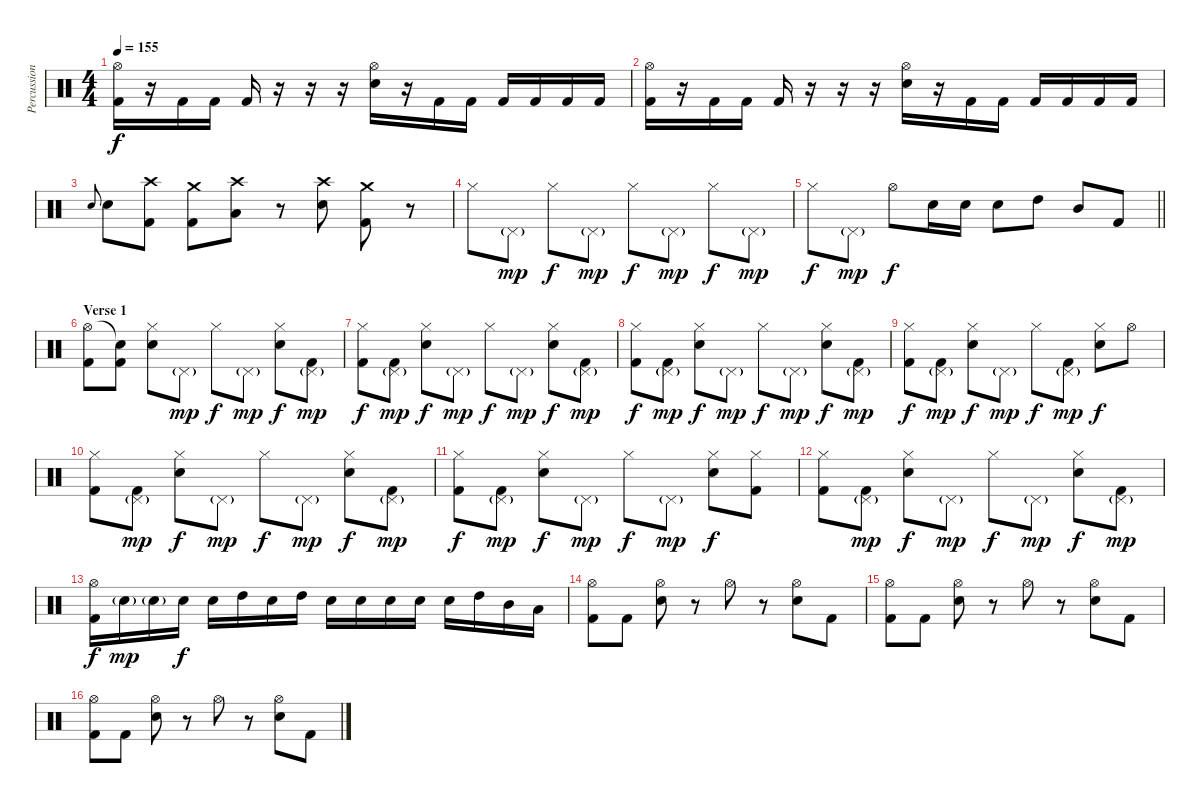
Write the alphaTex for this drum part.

\track ("Percussion" "Percussion") {instrument percussion}
\staff {score}
\articulation defaults
\ts (4 4)
\tempo 155
\clef neutral
\ks c
("Hi-Hat (open)" "Kick (hit) 2").16{dy f} r.16 "Kick (hit) 2".16 "Kick (hit) 2".16 "Kick (hit) 2".16 r.16 r.16 r.16 ("Hi-Hat (open)" "Snare (hit) 2").16 r.16 "Kick (hit) 2".16 "Kick (hit) 2".16 "Kick (hit) 2".16 "Kick (hit) 2".16 "Kick (hit) 2".16 "Kick (hit) 2".16 |
("Hi-Hat (open)" "Kick (hit) 2").16 r.16 "Kick (hit) 2".16 "Kick (hit) 2".16 "Kick (hit) 2".16 r.16 r.16 r.16 ("Hi-Hat (open)" "Snare (hit) 2").16 r.16 "Kick (hit) 2".16 "Kick (hit) 2".16 "Kick (hit) 2".16 "Kick (hit) 2".16 "Kick (hit) 2".16 "Kick (hit) 2".16 |
"Snare (hit) 2"{h}.8{gr onbeat} "Snare (hit) 2".8 ("Crash high (hit)" "Kick (hit) 2").8 ("Crash medium (hit)" "Kick (hit) 2").8 ("Crash high (hit)" "Low Tom (hit)").8 r.8 ("Crash high (hit)" "Snare (hit) 2").8 ("Crash medium (hit)" "Kick (hit) 2").8 r.8 |
"Hi-Hat (closed)".8 "Pedal Hi-Hat (hit)"{g}.8{dy mp} "Hi-Hat (closed)".8{dy f} "Pedal Hi-Hat (hit)"{g}.8{dy mp} "Hi-Hat (closed)".8{dy f} "Pedal Hi-Hat (hit)"{g}.8{dy mp} "Hi-Hat (closed)".8{dy f} "Pedal Hi-Hat (hit)"{g}.8{dy mp} |
\barLineRight lightlight "Hi-Hat (closed)".8{dy f} "Pedal Hi-Hat (hit)"{g}.8{dy mp} "Hi-Hat (open)".8{dy f} "Snare (hit) 2".16 "Snare (hit) 2".16 "Snare (hit) 2".8 "High Tom (hit)".8 "Mid Tom (hit)".8 "Kick (hit) 2".8
|
\section ("" "Verse 1")
("Hi-Hat (open)" "Kick (hit) 2").8 ("Snare (hit)"{t} "Kick (hit) 2").8 ("Hi-Hat (closed)" "Snare (hit) 2").8 "Pedal Hi-Hat (hit)"{g}.8{dy mp} "Hi-Hat (closed)".8{dy f} "Pedal Hi-Hat (hit)"{g}.8{dy mp} ("Hi-Hat (closed)" "Snare (hit) 2").8{dy f} ("Pedal Hi-Hat (hit)"{g} "Kick (hit) 2").8{dy mp} |
("Hi-Hat (closed)" "Kick (hit) 2").8{dy f} ("Pedal Hi-Hat (hit)"{g} "Kick (hit) 2").8{dy mp} ("Hi-Hat (closed)" "Snare (hit) 2").8{dy f} "Pedal Hi-Hat (hit)"{g}.8{dy mp} "Hi-Hat (closed)".8{dy f} "Pedal Hi-Hat (hit)"{g}.8{dy mp} ("Hi-Hat (closed)" "Snare (hit) 2").8{dy f} ("Pedal Hi-Hat (hit)"{g} "Kick (hit) 2").8{dy mp} |
("Hi-Hat (closed)" "Kick (hit) 2").8{dy f} ("Pedal Hi-Hat (hit)"{g} "Kick (hit) 2").8{dy mp} ("Hi-Hat (closed)" "Snare (hit) 2").8{dy f} "Pedal Hi-Hat (hit)"{g}.8{dy mp} "Hi-Hat (closed)".8{dy f} "Pedal Hi-Hat (hit)"{g}.8{dy mp} ("Hi-Hat (closed)" "Snare (hit) 2").8{dy f} ("Pedal Hi-Hat (hit)"{g} "Kick (hit) 2").8{dy mp} |
("Hi-Hat (closed)" "Kick (hit) 2").8{dy f} ("Pedal Hi-Hat (hit)"{g} "Kick (hit) 2").8{dy mp} ("Hi-Hat (closed)" "Snare (hit) 2").8{dy f} "Pedal Hi-Hat (hit)"{g}.8{dy mp} "Hi-Hat (closed)".8{dy f} ("Pedal Hi-Hat (hit)"{g} "Kick (hit) 2").8{dy mp} ("Hi-Hat (closed)" "Snare (hit) 2").8{dy f} "Hi-Hat (open)".8 |
("Hi-Hat (closed)" "Kick (hit) 2").8 ("Pedal Hi-Hat (hit)"{g} "Kick (hit) 2").8{dy mp} ("Hi-Hat (closed)" "Snare (hit) 2").8{dy f} "Pedal Hi-Hat (hit)"{g}.8{dy mp} "Hi-Hat (closed)".8{dy f} "Pedal Hi-Hat (hit)"{g}.8{dy mp} ("Hi-Hat (closed)" "Snare (hit) 2").8{dy f} ("Pedal Hi-Hat (hit)"{g} "Kick (hit) 2").8{dy mp} |
("Hi-Hat (closed)" "Kick (hit) 2").8{dy f} ("Pedal Hi-Hat (hit)"{g} "Kick (hit) 2").8{dy mp} ("Hi-Hat (closed)" "Snare (hit) 2").8{dy f} "Pedal Hi-Hat (hit)"{g}.8{dy mp} "Hi-Hat (closed)".8{dy f} "Pedal Hi-Hat (hit)"{g}.8{dy mp} ("Hi-Hat (closed)" "Snare (hit) 2").8{dy f} ("Hi-Hat (closed)" "Kick (hit) 2").8 |
("Hi-Hat (closed)" "Kick (hit) 2").8 ("Pedal Hi-Hat (hit)"{g} "Kick (hit) 2").8{dy mp} ("Hi-Hat (closed)" "Snare (hit) 2").8{dy f} "Pedal Hi-Hat (hit)"{g}.8{dy mp} "Hi-Hat (closed)".8{dy f} "Pedal Hi-Hat (hit)"{g}.8{dy mp} ("Hi-Hat (closed)" "Snare (hit) 2").8{dy f} ("Pedal Hi-Hat (hit)"{g} "Kick (hit) 2").8{dy mp} |
("Hi-Hat (open)" "Kick (hit) 2").16{dy f} "Snare (hit) 2"{g}.16{dy mp} "Snare (hit) 2"{g}.16 "Snare (hit) 2".16{dy f} "Snare (hit) 2".16 "High Tom (hit)".16 "Snare (hit) 2".16 "High Tom (hit)".16 "Snare (hit) 2".16 "Snare (hit) 2".16 "Snare (hit) 2".16 "Snare (hit) 2".16 "Snare (hit) 2".16 "High Tom (hit)".16 "Mid Tom (hit)".16 "Low Tom (hit)".16 |
("Hi-Hat (open)" "Kick (hit) 2").8 "Kick (hit) 2".8 ("Hi-Hat (open)" "Snare (hit) 2").8 r.8 "Hi-Hat (open)".8 r.8 ("Hi-Hat (open)" "Snare (hit) 2").8 "Kick (hit) 2".8 |
("Hi-Hat (open)" "Kick (hit) 2").8 "Kick (hit) 2".8 ("Hi-Hat (open)" "Snare (hit) 2").8 r.8 "Hi-Hat (open)".8 r.8 ("Hi-Hat (open)" "Snare (hit) 2").8 "Kick (hit) 2".8 |
("Hi-Hat (open)" "Kick (hit) 2").8 "Kick (hit) 2".8 ("Hi-Hat (open)" "Snare (hit) 2").8 r.8 "Hi-Hat (open)".8 r.8 ("Hi-Hat (open)" "Snare (hit) 2").8 "Kick (hit) 2".8
